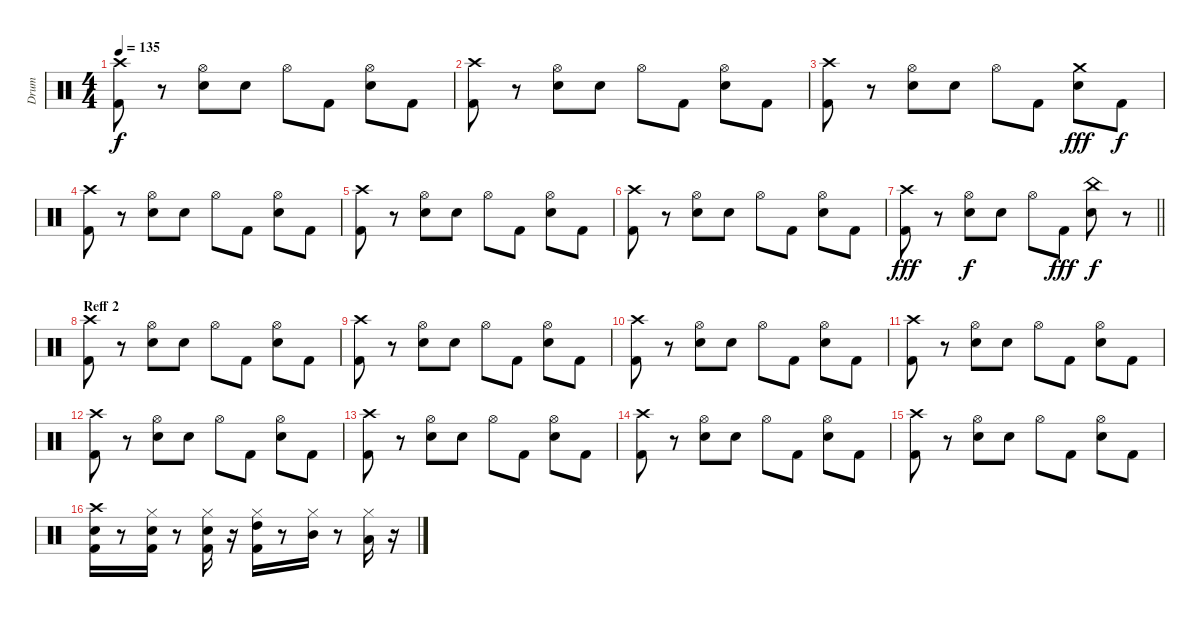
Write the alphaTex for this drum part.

\track ("Drum" "Drum") {instrument percussion}
\staff {score}
\articulation defaults
\ts (4 4)
\tempo 135
\clef neutral
\ks c
("Crash high (hit)" "Kick (hit) 2").8{dy f} r.8 ("Electric Snare (hit)" "Hi-Hat (open)").8 "Electric Snare (hit)".8 "Hi-Hat (open)".8 "Kick (hit) 2".8 ("Electric Snare (hit)" "Hi-Hat (open)").8 "Kick (hit) 2".8 |
("Crash high (hit)" "Kick (hit) 2").8 r.8 ("Electric Snare (hit)" "Hi-Hat (open)").8 "Electric Snare (hit)".8 "Hi-Hat (open)".8 "Kick (hit) 2".8 ("Electric Snare (hit)" "Hi-Hat (open)").8 "Kick (hit) 2".8 |
("Crash high (hit)" "Kick (hit) 2").8 r.8 ("Electric Snare (hit)" "Hi-Hat (open)").8 "Electric Snare (hit)".8 "Hi-Hat (open)".8 "Kick (hit) 2".8 ("Electric Snare (hit)" "Crash medium (hit)").8{dy fff} "Kick (hit) 2".8{dy f} |
("Crash high (hit)" "Kick (hit) 2").8 r.8 ("Electric Snare (hit)" "Hi-Hat (open)").8 "Electric Snare (hit)".8 "Hi-Hat (open)".8 "Kick (hit) 2".8 ("Electric Snare (hit)" "Hi-Hat (open)").8 "Kick (hit) 2".8 |
("Crash high (hit)" "Kick (hit) 2").8 r.8 ("Electric Snare (hit)" "Hi-Hat (open)").8 "Electric Snare (hit)".8 "Hi-Hat (open)".8 "Kick (hit) 2".8 ("Electric Snare (hit)" "Hi-Hat (open)").8 "Kick (hit) 2".8 |
("Crash high (hit)" "Kick (hit) 2").8 r.8 ("Electric Snare (hit)" "Hi-Hat (open)").8 "Electric Snare (hit)".8 "Hi-Hat (open)".8 "Kick (hit) 2".8 ("Electric Snare (hit)" "Hi-Hat (open)").8 "Kick (hit) 2".8 |
\barLineRight lightlight
("Crash high (hit)" "Kick (hit) 2").8{dy fff} r.8 ("Hi-Hat (open)" "Electric Snare (hit)").8{dy f} "Electric Snare (hit)".8 "Hi-Hat (open)".8 "Kick (hit) 2".8{dy fff} ("China (hit)" "Electric Snare (hit)").8{dy f} r.8 |
\section ("" "Reff 2")
("Crash high (hit)" "Kick (hit) 2").8 r.8 ("Electric Snare (hit)" "Hi-Hat (open)").8 "Electric Snare (hit)".8 "Hi-Hat (open)".8 "Kick (hit) 2".8 ("Electric Snare (hit)" "Hi-Hat (open)").8 "Kick (hit) 2".8 |
("Crash high (hit)" "Kick (hit) 2").8 r.8 ("Electric Snare (hit)" "Hi-Hat (open)").8 "Electric Snare (hit)".8 "Hi-Hat (open)".8 "Kick (hit) 2".8 ("Electric Snare (hit)" "Hi-Hat (open)").8 "Kick (hit) 2".8 |
("Crash high (hit)" "Kick (hit) 2").8 r.8 ("Electric Snare (hit)" "Hi-Hat (open)").8 "Electric Snare (hit)".8 "Hi-Hat (open)".8 "Kick (hit) 2".8 ("Electric Snare (hit)" "Hi-Hat (open)").8 "Kick (hit) 2".8 |
("Crash high (hit)" "Kick (hit) 2").8 r.8 ("Electric Snare (hit)" "Hi-Hat (open)").8 "Electric Snare (hit)".8 "Hi-Hat (open)".8 "Kick (hit) 2".8 ("Electric Snare (hit)" "Hi-Hat (open)").8 "Kick (hit) 2".8 |
("Crash high (hit)" "Kick (hit) 2").8 r.8 ("Electric Snare (hit)" "Hi-Hat (open)").8 "Electric Snare (hit)".8 "Hi-Hat (open)".8 "Kick (hit) 2".8 ("Electric Snare (hit)" "Hi-Hat (open)").8 "Kick (hit) 2".8 |
("Crash high (hit)" "Kick (hit) 2").8 r.8 ("Electric Snare (hit)" "Hi-Hat (open)").8 "Electric Snare (hit)".8 "Hi-Hat (open)".8 "Kick (hit) 2".8 ("Electric Snare (hit)" "Hi-Hat (open)").8 "Kick (hit) 2".8 |
("Crash high (hit)" "Kick (hit) 2").8 r.8 ("Electric Snare (hit)" "Hi-Hat (open)").8 "Electric Snare (hit)".8 "Hi-Hat (open)".8 "Kick (hit) 2".8 ("Electric Snare (hit)" "Hi-Hat (open)").8 "Kick (hit) 2".8 |
("Crash high (hit)" "Kick (hit) 2").8 r.8 ("Electric Snare (hit)" "Hi-Hat (open)").8 "Electric Snare (hit)".8 "Hi-Hat (open)".8 "Kick (hit) 2".8 ("Electric Snare (hit)" "Hi-Hat (open)").8 "Kick (hit) 2".8 |
("Electric Snare (hit)" "Crash high (hit)" "Kick (hit) 2").16 r.8 ("Electric Snare (hit)" "Hi-Hat (closed)" "Kick (hit) 2").16 r.8 ("Electric Snare (hit)" "Hi-Hat (closed)" "Kick (hit) 2").16 r.16 ("Hi-Hat (closed)" "High Tom (hit)" "Kick (hit) 2").16 r.8 ("Mid Tom (hit)" "Hi-Hat (closed)").16 r.8 ("Hi-Hat (closed)" "Low Tom (hit)").16 r.16
